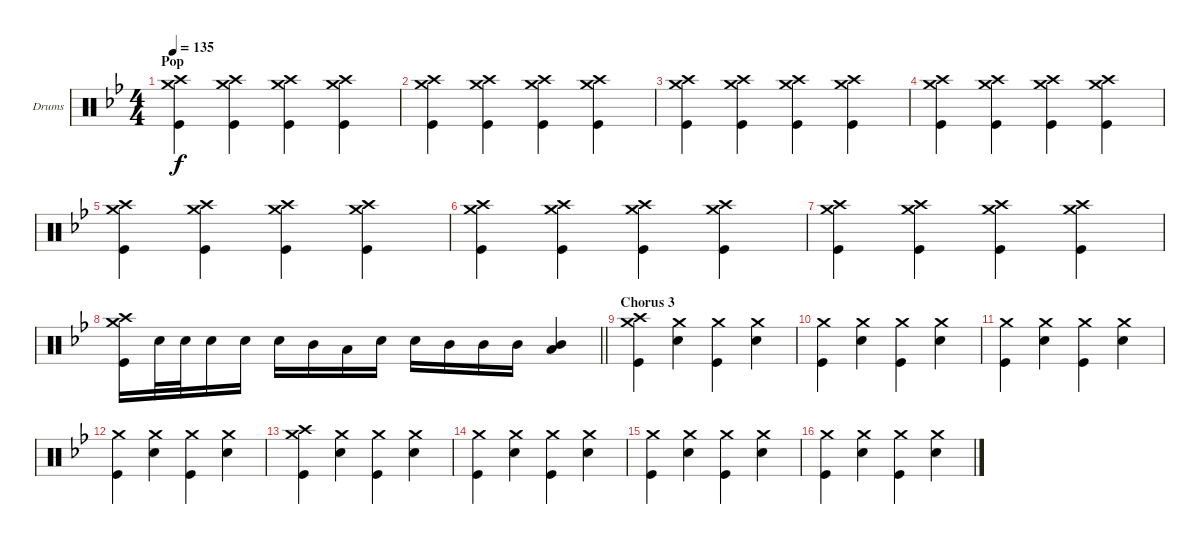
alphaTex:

\bracketExtendMode groupsimilarinstruments
\firstSystemTrackNameOrientation horizontal
\otherSystemsTrackNameOrientation horizontal
\track ("Drumkit" "Drums") {instrument percussion}
\staff {score}
\articulation defaults
\ts (4 4)
\section ("" "Pop")
\tempo 135
\clef neutral
\ks gminor
("Crash high (hit)" "Crash medium (hit)" "Kick (hit)").4{dy f} ("Crash medium (hit)" "Crash high (hit)" "Kick (hit)").4 ("Crash high (hit)" "Crash medium (hit)" "Kick (hit)").4 ("Crash medium (hit)" "Crash high (hit)" "Kick (hit)").4 |
("Crash high (hit)" "Crash medium (hit)" "Kick (hit)").4 ("Crash medium (hit)" "Crash high (hit)" "Kick (hit)").4 ("Crash high (hit)" "Crash medium (hit)" "Kick (hit)").4 ("Crash medium (hit)" "Crash high (hit)" "Kick (hit)").4 |
("Crash high (hit)" "Crash medium (hit)" "Kick (hit)").4 ("Crash medium (hit)" "Crash high (hit)" "Kick (hit)").4 ("Crash high (hit)" "Crash medium (hit)" "Kick (hit)").4 ("Crash medium (hit)" "Crash high (hit)" "Kick (hit)").4 |
("Crash high (hit)" "Crash medium (hit)" "Kick (hit)").4 ("Crash medium (hit)" "Crash high (hit)" "Kick (hit)").4 ("Crash high (hit)" "Crash medium (hit)" "Kick (hit)").4 ("Crash medium (hit)" "Crash high (hit)" "Kick (hit)").4 |
("Crash high (hit)" "Crash medium (hit)" "Kick (hit)").4 ("Crash medium (hit)" "Crash high (hit)" "Kick (hit)").4 ("Crash high (hit)" "Crash medium (hit)" "Kick (hit)").4 ("Crash medium (hit)" "Crash high (hit)" "Kick (hit)").4 |
("Crash high (hit)" "Crash medium (hit)" "Kick (hit)").4 ("Crash medium (hit)" "Crash high (hit)" "Kick (hit)").4 ("Crash high (hit)" "Crash medium (hit)" "Kick (hit)").4 ("Crash medium (hit)" "Crash high (hit)" "Kick (hit)").4 |
("Crash high (hit)" "Crash medium (hit)" "Kick (hit)").4 ("Crash medium (hit)" "Crash high (hit)" "Kick (hit)").4 ("Crash high (hit)" "Crash medium (hit)" "Kick (hit)").4 ("Crash medium (hit)" "Crash high (hit)" "Kick (hit)").4 |
\barLineRight lightlight
("Crash high (hit)" "Crash medium (hit)" "Kick (hit)").16 "Snare (hit) 2".32 "Snare (hit) 2".32 "Snare (hit) 2".16 "Snare (hit) 2".16 "Snare (hit) 2".16 "Mid Tom (hit)".16 "Low Tom (hit)".16 "Snare (hit) 2".16 "Snare (hit) 2".16 "Mid Tom (hit)".16 "Mid Tom (hit)".16 "Mid Tom (hit)".16 ("Low Tom (hit)" "Mid Tom (hit)").4 |
\section ("" "Chorus 3")
("Crash high (hit)" "Crash medium (hit)" "Kick (hit)").4 ("Crash medium (hit)" "Snare (hit) 2").4 ("Crash medium (hit)" "Kick (hit)").4 ("Crash medium (hit)" "Snare (hit) 2").4 |
("Crash medium (hit)" "Kick (hit)").4 ("Crash medium (hit)" "Snare (hit) 2").4 ("Crash medium (hit)" "Kick (hit)").4 ("Crash medium (hit)" "Snare (hit) 2").4 |
("Crash medium (hit)" "Kick (hit)").4 ("Crash medium (hit)" "Snare (hit) 2").4 ("Crash medium (hit)" "Kick (hit)").4 ("Crash medium (hit)" "Snare (hit) 2").4 |
("Crash medium (hit)" "Kick (hit)").4 ("Crash medium (hit)" "Snare (hit) 2").4 ("Crash medium (hit)" "Kick (hit)").4 ("Crash medium (hit)" "Snare (hit) 2").4 |
("Crash high (hit)" "Crash medium (hit)" "Kick (hit)").4 ("Crash medium (hit)" "Snare (hit) 2").4 ("Crash medium (hit)" "Kick (hit)").4 ("Crash medium (hit)" "Snare (hit) 2").4 |
("Crash medium (hit)" "Kick (hit)").4 ("Crash medium (hit)" "Snare (hit) 2").4 ("Crash medium (hit)" "Kick (hit)").4 ("Crash medium (hit)" "Snare (hit) 2").4 |
("Crash medium (hit)" "Kick (hit)").4 ("Crash medium (hit)" "Snare (hit) 2").4 ("Crash medium (hit)" "Kick (hit)").4 ("Crash medium (hit)" "Snare (hit) 2").4 |
("Crash medium (hit)" "Kick (hit)").4 ("Crash medium (hit)" "Snare (hit) 2").4 ("Crash medium (hit)" "Kick (hit)").4 ("Crash medium (hit)" "Snare (hit) 2").4
